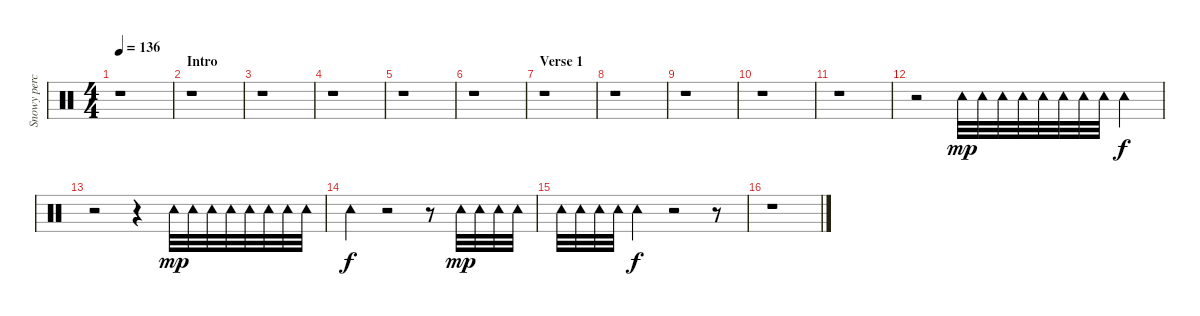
\track ("Snowy percussion" "Snowy perc") {instrument percussion}
\staff {score}
\articulation defaults
\ts (4 4)
\tempo 136
\clef neutral
\ks c
r.1{dy mp} |
\section ("" "Intro")
r.1 |
r.1 |
r.1 |
r.1 |
r.1 |
\section ("" "Verse 1")
r.1 |
r.1 |
r.1 |
r.1 |
r.1 |
r.2 "Tambourine (hit)".32 "Tambourine (hit)".32 "Tambourine (hit)".32 "Tambourine (hit)".32 "Tambourine (hit)".32 "Tambourine (hit)".32 "Tambourine (hit)".32 "Tambourine (hit)".32 "Tambourine (hit)".4{dy f} |
r.2 r.4 "Tambourine (hit)".32{dy mp} "Tambourine (hit)".32 "Tambourine (hit)".32 "Tambourine (hit)".32 "Tambourine (hit)".32 "Tambourine (hit)".32 "Tambourine (hit)".32 "Tambourine (hit)".32 |
"Tambourine (hit)".4{dy f} r.2 r.8 "Tambourine (hit)".32{dy mp} "Tambourine (hit)".32 "Tambourine (hit)".32 "Tambourine (hit)".32 |
"Tambourine (hit)".32 "Tambourine (hit)".32 "Tambourine (hit)".32 "Tambourine (hit)".32 "Tambourine (hit)".4{dy f} r.2 r.8 |
r.1
